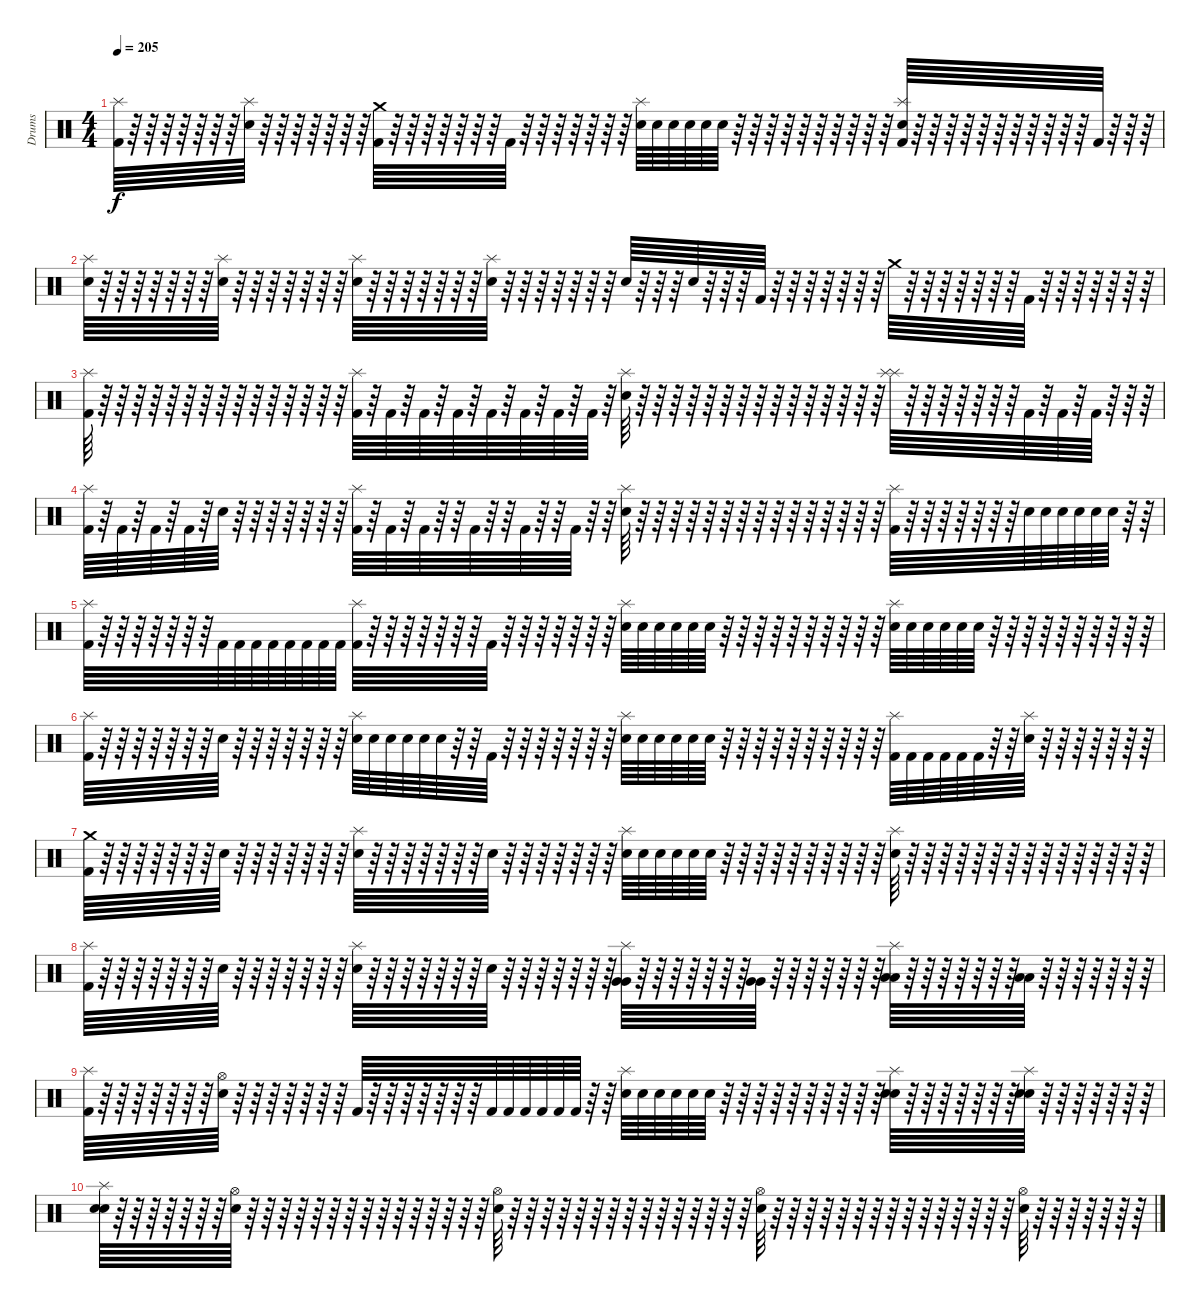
\track ("Drums" "Drums") {instrument percussion}
\staff {score}
\articulation defaults
\ts (4 4)
\tempo 205
\clef neutral
\ks c
("Kick (hit) 2" "Splash (hit)").64{dy f} r.64 r.64 r.64 r.64 r.64 r.64 r.64 ("Splash (hit)" "Snare (hit) 2").64 r.64 r.64 r.64 r.64 r.64 r.64 r.64 ("Kick (hit) 2" "Crash medium (hit)").64 r.64 r.64 r.64 r.64 r.64 r.64 r.64 "Kick (hit) 2".64 r.64 r.64 r.64 r.64 r.64 r.64 r.64 ("Splash (hit)" "Snare (hit) 2").64 "Snare (hit) 2".64 "Snare (hit) 2".64 "Snare (hit) 2".64 "Snare (hit) 2".64 "Snare (hit) 2".64 r.64 r.64 r.64 r.64 r.64 r.64 r.64 r.64 r.64 r.64 ("Kick (hit) 2" "Splash (hit)" "Snare (hit) 2").64 r.64 r.64 r.64 r.64 r.64 r.64 r.64 r.64 r.64 r.64 r.64 "Kick (hit) 2".64 r.64 r.64 r.64 |
("Snare (hit) 2" "Splash (hit)").64 r.64 r.64 r.64 r.64 r.64 r.64 r.64 ("Snare (hit) 2" "Splash (hit)").64 r.64 r.64 r.64 r.64 r.64 r.64 r.64 ("Snare (hit) 2" "Splash (hit)").64 r.64 r.64 r.64 r.64 r.64 r.64 r.64 ("Snare (hit) 2" "Splash (hit)").64 r.64 r.64 r.64 r.64 r.64 r.64 r.64 "Electric Snare (hit)".64 r.64 r.64 r.64 "Electric Snare (hit)".64 r.64 r.64 r.64 "Kick (hit) 2".64 r.64 r.64 r.64 r.64 r.64 r.64 r.64 "Crash medium (hit)".64 r.64 r.64 r.64 r.64 r.64 r.64 r.64 "Kick (hit) 2".64 r.64 r.64 r.64 r.64 r.64 r.64 r.64 |
("Kick (hit) 2" "Splash (hit)").64 r.64 r.64 r.64 r.64 r.64 r.64 r.64 r.64 r.64 r.64 r.64 r.64 r.64 r.64 r.64 ("Kick (hit) 2" "Splash (hit)").64 r.64 "Kick (hit) 2".64 r.64 "Kick (hit) 2".64 r.64 "Kick (hit) 2".64 r.64 "Kick (hit) 2".64 r.64 "Kick (hit) 2".64 r.64 "Kick (hit) 2".64 r.64 "Kick (hit) 2".64 r.64 ("Splash (hit)" "Snare (hit) 2").64 r.64 r.64 r.64 r.64 r.64 r.64 r.64 r.64 r.64 r.64 r.64 r.64 r.64 r.64 r.64 ("Splash (hit)" "Splash (hit)").64 r.64 r.64 r.64 r.64 r.64 r.64 r.64 "Kick (hit) 2".64 r.64 "Kick (hit) 2".64 r.64 "Kick (hit) 2".64 r.64 r.64 r.64 |
("Kick (hit) 2" "Splash (hit)").64 r.64 "Kick (hit) 2".64 r.64 "Kick (hit) 2".64 r.64 "Kick (hit) 2".64 r.64 "Snare (hit) 2".64 r.64 r.64 r.64 r.64 r.64 r.64 r.64 ("Kick (hit) 2" "Splash (hit)").64 r.64 "Kick (hit) 2".64 r.64 "Kick (hit) 2".64 r.64 r.64 "Kick (hit) 2".64 r.64 r.64 "Kick (hit) 2".64 r.64 r.64 "Kick (hit) 2".64 r.64 r.64 ("Splash (hit)" "Snare (hit) 2").64 r.64 r.64 r.64 r.64 r.64 r.64 r.64 r.64 r.64 r.64 r.64 r.64 r.64 r.64 r.64 ("Kick (hit) 2" "Splash (hit)").64 r.64 r.64 r.64 r.64 r.64 r.64 r.64 "Electric Snare (hit)".64 "Electric Snare (hit)".64 "Electric Snare (hit)".64 "Electric Snare (hit)".64 "Electric Snare (hit)".64 "Electric Snare (hit)".64 r.64 r.64 |
("Kick (hit) 2" "Splash (hit)").64 r.64 r.64 r.64 r.64 r.64 r.64 r.64 "Kick (hit) 2".64 "Kick (hit) 2".64 "Kick (hit) 2".64 "Kick (hit) 2".64 "Kick (hit) 2".64 "Kick (hit) 2".64 "Kick (hit) 2".64 "Kick (hit) 2".64 ("Kick (hit) 2" "Splash (hit)").64 r.64 r.64 r.64 r.64 r.64 r.64 r.64 "Kick (hit) 2".64 r.64 r.64 r.64 r.64 r.64 r.64 r.64 ("Splash (hit)" "Electric Snare (hit)").64 "Electric Snare (hit)".64 "Electric Snare (hit)".64 "Electric Snare (hit)".64 "Electric Snare (hit)".64 "Electric Snare (hit)".64 r.64 r.64 r.64 r.64 r.64 r.64 r.64 r.64 r.64 r.64 ("Splash (hit)" "Electric Snare (hit)").64 "Electric Snare (hit)".64 "Electric Snare (hit)".64 "Electric Snare (hit)".64 "Electric Snare (hit)".64 "Electric Snare (hit)".64 r.64 r.64 r.64 r.64 r.64 r.64 r.64 r.64 r.64 r.64 |
("Kick (hit) 2" "Splash (hit)").64 r.64 r.64 r.64 r.64 r.64 r.64 r.64 "Electric Snare (hit)".64 r.64 r.64 r.64 r.64 r.64 r.64 r.64 ("Electric Snare (hit)" "Splash (hit)").64 "Electric Snare (hit)".64 "Electric Snare (hit)".64 "Electric Snare (hit)".64 "Electric Snare (hit)".64 "Electric Snare (hit)".64 r.64 r.64 "Kick (hit) 2".64 r.64 r.64 r.64 r.64 r.64 r.64 r.64 ("Splash (hit)" "Snare (hit) 2").64 "Snare (hit) 2".64 "Snare (hit) 2".64 "Snare (hit) 2".64 "Snare (hit) 2".64 "Snare (hit) 2".64 r.64 r.64 r.64 r.64 r.64 r.64 r.64 r.64 r.64 r.64 ("Kick (hit) 2" "Splash (hit)").64 "Kick (hit) 2".64 "Kick (hit) 2".64 "Kick (hit) 2".64 "Kick (hit) 2".64 "Kick (hit) 2".64 r.64 r.64 ("Electric Snare (hit)" "Splash (hit)").64 r.64 r.64 r.64 r.64 r.64 r.64 r.64 |
("Kick (hit) 2" "Crash medium (hit)").64 r.64 r.64 r.64 r.64 r.64 r.64 r.64 "Electric Snare (hit)".64 r.64 r.64 r.64 r.64 r.64 r.64 r.64 ("Electric Snare (hit)" "Splash (hit)").64 r.64 r.64 r.64 r.64 r.64 r.64 r.64 "Electric Snare (hit)".64 r.64 r.64 r.64 r.64 r.64 r.64 r.64 ("Splash (hit)" "Electric Snare (hit)").64 "Electric Snare (hit)".64 "Electric Snare (hit)".64 "Electric Snare (hit)".64 "Electric Snare (hit)".64 "Electric Snare (hit)".64 r.64 r.64 r.64 r.64 r.64 r.64 r.64 r.64 r.64 r.64 ("Splash (hit)" "Snare (hit) 2").64 r.64 r.64 r.64 r.64 r.64 r.64 r.64 r.64 r.64 r.64 r.64 r.64 r.64 r.64 r.64 |
("Kick (hit) 2" "Splash (hit)").64 r.64 r.64 r.64 r.64 r.64 r.64 r.64 "Snare (hit) 2".64 r.64 r.64 r.64 r.64 r.64 r.64 r.64 ("Electric Snare (hit)" "Splash (hit)").64 r.64 r.64 r.64 r.64 r.64 r.64 r.64 "Electric Snare (hit)".64 r.64 r.64 r.64 r.64 r.64 r.64 r.64 ("Splash (hit)" "Very Low Tom (hit)" "Very Low Tom (hit)").64 r.64 r.64 r.64 r.64 r.64 r.64 r.64 ("Very Low Tom (hit)" "Very Low Tom (hit)").64 r.64 r.64 r.64 r.64 r.64 r.64 r.64 ("Splash (hit)" "Low Floor Tom (hit)" "Low Floor Tom (hit)").64 r.64 r.64 r.64 r.64 r.64 r.64 r.64 ("Low Floor Tom (hit)" "Low Floor Tom (hit)").64 r.64 r.64 r.64 r.64 r.64 r.64 r.64 |
("Kick (hit) 2" "Splash (hit)").64 r.64 r.64 r.64 r.64 r.64 r.64 r.64 ("Hi-Hat (open)" "Snare (hit) 2").64 r.64 r.64 r.64 r.64 r.64 r.64 r.64 "Kick (hit) 2".64 r.64 r.64 r.64 r.64 r.64 r.64 r.64 "Kick (hit) 2".64 "Kick (hit) 2".64 "Kick (hit) 2".64 "Kick (hit) 2".64 "Kick (hit) 2".64 "Kick (hit) 2".64 r.64 r.64 ("Splash (hit)" "Electric Snare (hit)").64 "Electric Snare (hit)".64 "Electric Snare (hit)".64 "Electric Snare (hit)".64 "Electric Snare (hit)".64 "Electric Snare (hit)".64 r.64 r.64 r.64 r.64 r.64 r.64 r.64 r.64 r.64 r.64 ("Splash (hit)" "Electric Snare (hit)" "Snare (hit) 2").64 r.64 r.64 r.64 r.64 r.64 r.64 r.64 ("Splash (hit)" "Electric Snare (hit)" "Snare (hit) 2").64 r.64 r.64 r.64 r.64 r.64 r.64 r.64 |
("Splash (hit)" "Electric Snare (hit)" "Snare (hit) 2").64 r.64 r.64 r.64 r.64 r.64 r.64 r.64 ("Hi-Hat (open)" "Electric Snare (hit)").64 r.64 r.64 r.64 r.64 r.64 r.64 r.64 r.64 r.64 r.64 r.64 r.64 r.64 r.64 r.64 ("Hi-Hat (open)" "Electric Snare (hit)").64 r.64 r.64 r.64 r.64 r.64 r.64 r.64 r.64 r.64 r.64 r.64 r.64 r.64 r.64 r.64 ("Hi-Hat (open)" "Electric Snare (hit)").64 r.64 r.64 r.64 r.64 r.64 r.64 r.64 r.64 r.64 r.64 r.64 r.64 r.64 r.64 r.64 ("Hi-Hat (open)" "Electric Snare (hit)").64 r.64 r.64 r.64 r.64 r.64 r.64 r.64
